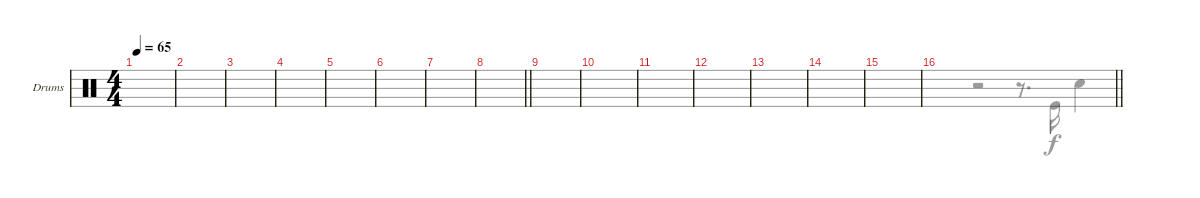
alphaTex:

\defaultSystemsLayout 4
\bracketExtendMode groupsimilarinstruments
\firstSystemTrackNameOrientation horizontal
\otherSystemsTrackNameOrientation horizontal
\track ("Drumkit" "Drums") {instrument percussion}
\staff {score}
\articulation defaults
\voice
\ts (4 4)
\scale
0.51
\tempo 65
\accidentals auto
\clef neutral
\ottava regular
\simile none
\ks aminor
|
\scale
0.490028 |
\scale
0.515715 |
\scale
0.48433 |
\scale
0.524286 |
\scale
0.475783 |
\scale
0.507143 |
\scale
0.492953
\barLineRight lightlight
|
\scale
0.502469 |
\scale
0.497656 |
\scale
0.508571 |
\scale
0.491453 |
\scale
0.514286 |
\scale
0.485755 |
\scale
0.508414 |
\scale
0.491841
\barLineRight lightlight
\voice
\clef neutral
\ottava regular
\simile none
\ks aminor
|
|
|
|
|
|
|
\barLineRight lightlight
|
|
|
|
|
|
|
|
\barLineRight lightlight
r.2 r.8{d} "Kick (hit)".16 "Snare (hit) 2".4
